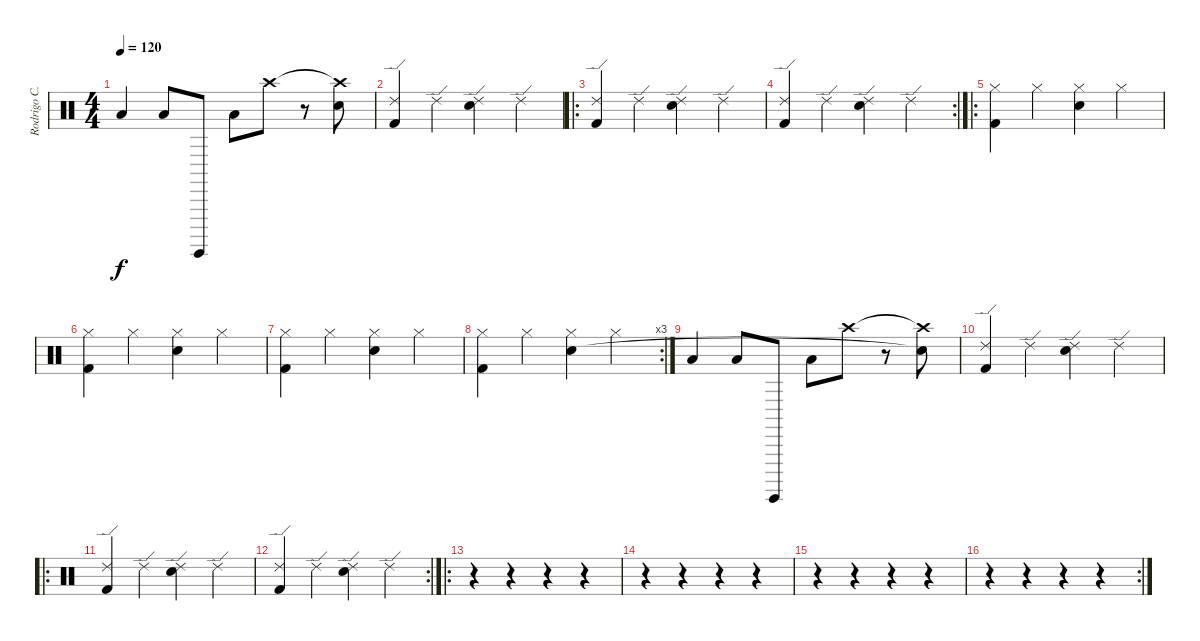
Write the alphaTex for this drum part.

\track ("Rodrigo C. (Bateria)" "Rodrigo C.") {instrument percussion}
\staff {score}
\articulation defaults
\ts (4 4)
\tempo 120
\clef neutral
\ks c "Low Floor Tom (hit)".4{dy f} "Low Tom (hit)".8 "Surdo (hit)".8 "Low Tom (hit)".8 "Crash high (hit)".8
r.8 ("Crash high (hit)"{t} "Snare (hit)"{t}).8 |
("Ride (edge) 2" "Kick (hit) 2").4 "Ride (edge) 2".4 ("Ride (edge) 2" "Electric Snare (hit)").4 "Ride (edge) 2".4 |
\ro
("Ride (edge) 2" "Kick (hit) 2").4 "Ride (edge) 2".4 ("Ride (edge) 2" "Electric Snare (hit)").4 "Ride (edge) 2".4 |
\rc 2
("Ride (edge) 2" "Kick (hit) 2").4 "Ride (edge) 2".4 ("Ride (edge) 2" "Electric Snare (hit)").4 "Ride (edge) 2".4 |
\ro
("Hi-Hat (closed)" "Kick (hit) 2").4 "Hi-Hat (closed)".4 ("Hi-Hat (closed)" "Electric Snare (hit)").4 "Hi-Hat (closed)".4 |
("Hi-Hat (closed)" "Kick (hit) 2").4 "Hi-Hat (closed)".4 ("Hi-Hat (closed)" "Electric Snare (hit)").4 "Hi-Hat (closed)".4 |
("Hi-Hat (closed)" "Kick (hit) 2").4 "Hi-Hat (closed)".4 ("Hi-Hat (closed)" "Electric Snare (hit)").4 "Hi-Hat (closed)".4 |
\rc 3
("Hi-Hat (closed)" "Kick (hit) 2").4 "Hi-Hat (closed)".4 ("Hi-Hat (closed)" "Electric Snare (hit)").4 "Hi-Hat (closed)".4 |
"Low Floor Tom (hit)".4 "Low Tom (hit)".8 "Surdo (hit)".8 "Low Tom (hit)".8 "Crash high (hit)".8 r.8 ("Crash high (hit)"{t} "Snare (hit)"{t}).8 |
("Ride (edge) 2" "Kick (hit) 2").4 "Ride (edge) 2".4 ("Ride (edge) 2" "Electric Snare (hit)").4 "Ride (edge) 2".4 |
\ro
("Ride (edge) 2" "Kick (hit) 2").4 "Ride (edge) 2".4 ("Ride (edge) 2" "Electric Snare (hit)").4 "Ride (edge) 2".4 |
\rc 2
("Ride (edge) 2" "Kick (hit) 2").4 "Ride (edge) 2".4 ("Ride (edge) 2" "Electric Snare (hit)").4 "Ride (edge) 2".4 |
\ro
r.4 r.4 r.4 r.4 |
r.4 r.4 r.4 r.4 |
r.4 r.4 r.4 r.4 |
\rc 2
r.4 r.4 r.4 r.4
